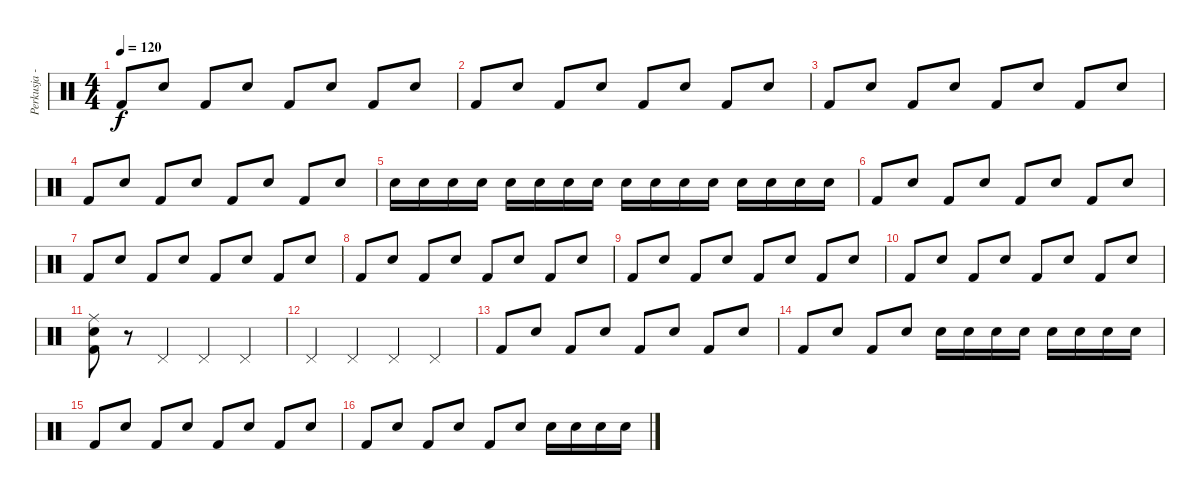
\track ("Perkusja - Mielony" "Perkusja -") {instrument percussion}
\staff {score}
\articulation defaults
\ts (4 4)
\tempo 120
\clef neutral
\ks c "Kick (hit) 2".8{dy f} "Snare (hit) 2".8 "Kick (hit) 2".8 "Snare (hit) 2".8 "Kick (hit) 2".8 "Snare (hit) 2".8 "Kick (hit) 2".8 "Snare (hit) 2".8
|
"Kick (hit) 2".8 "Snare (hit) 2".8 "Kick (hit) 2".8 "Snare (hit) 2".8 "Kick (hit) 2".8 "Snare (hit) 2".8 "Kick (hit) 2".8 "Snare (hit) 2".8 |
"Kick (hit) 2".8 "Snare (hit) 2".8 "Kick (hit) 2".8 "Snare (hit) 2".8 "Kick (hit) 2".8 "Snare (hit) 2".8 "Kick (hit) 2".8 "Snare (hit) 2".8 |
"Kick (hit) 2".8 "Snare (hit) 2".8 "Kick (hit) 2".8 "Snare (hit) 2".8 "Kick (hit) 2".8 "Snare (hit) 2".8 "Kick (hit) 2".8 "Snare (hit) 2".8 |
"Snare (hit) 2".16 "Snare (hit) 2".16 "Snare (hit) 2".16 "Snare (hit) 2".16 "Snare (hit) 2".16 "Snare (hit) 2".16 "Snare (hit) 2".16 "Snare (hit) 2".16 "Snare (hit) 2".16 "Snare (hit) 2".16 "Snare (hit) 2".16 "Snare (hit) 2".16 "Snare (hit) 2".16 "Snare (hit) 2".16 "Snare (hit) 2".16 "Snare (hit) 2".16 |
"Kick (hit) 2".8 "Snare (hit) 2".8 "Kick (hit) 2".8 "Snare (hit) 2".8 "Kick (hit) 2".8 "Snare (hit) 2".8 "Kick (hit) 2".8 "Snare (hit) 2".8 |
"Kick (hit) 2".8 "Snare (hit) 2".8 "Kick (hit) 2".8 "Snare (hit) 2".8 "Kick (hit) 2".8 "Snare (hit) 2".8 "Kick (hit) 2".8 "Snare (hit) 2".8 |
"Kick (hit) 2".8 "Snare (hit) 2".8 "Kick (hit) 2".8 "Snare (hit) 2".8 "Kick (hit) 2".8 "Snare (hit) 2".8 "Kick (hit) 2".8 "Snare (hit) 2".8 |
"Kick (hit) 2".8 "Snare (hit) 2".8 "Kick (hit) 2".8 "Snare (hit) 2".8 "Kick (hit) 2".8 "Snare (hit) 2".8 "Kick (hit) 2".8 "Snare (hit) 2".8 |
"Kick (hit) 2".8 "Snare (hit) 2".8 "Kick (hit) 2".8 "Snare (hit) 2".8 "Kick (hit) 2".8 "Snare (hit) 2".8 "Kick (hit) 2".8 "Snare (hit) 2".8 |
("Snare (hit) 2" "Ride (middle)" "Kick (hit) 2").8 r.8 "Pedal Hi-Hat (hit)".4 "Pedal Hi-Hat (hit)".4 "Pedal Hi-Hat (hit)".4 |
"Pedal Hi-Hat (hit)".4 "Pedal Hi-Hat (hit)".4 "Pedal Hi-Hat (hit)".4 "Pedal Hi-Hat (hit)".4 |
"Kick (hit) 2".8 "Snare (hit) 2".8 "Kick (hit) 2".8 "Snare (hit) 2".8 "Kick (hit) 2".8 "Snare (hit) 2".8 "Kick (hit) 2".8 "Snare (hit) 2".8 |
"Kick (hit) 2".8 "Snare (hit) 2".8 "Kick (hit) 2".8 "Snare (hit) 2".8 "Snare (hit) 2".16 "Snare (hit) 2".16 "Snare (hit) 2".16 "Snare (hit) 2".16 "Snare (hit) 2".16 "Snare (hit) 2".16 "Snare (hit) 2".16 "Snare (hit) 2".16 |
"Kick (hit) 2".8 "Snare (hit) 2".8 "Kick (hit) 2".8 "Snare (hit) 2".8 "Kick (hit) 2".8 "Snare (hit) 2".8 "Kick (hit) 2".8 "Snare (hit) 2".8 |
"Kick (hit) 2".8 "Snare (hit) 2".8 "Kick (hit) 2".8 "Snare (hit) 2".8 "Kick (hit) 2".8 "Snare (hit) 2".8 "Snare (hit) 2".16 "Snare (hit) 2".16 "Snare (hit) 2".16 "Snare (hit) 2".16
